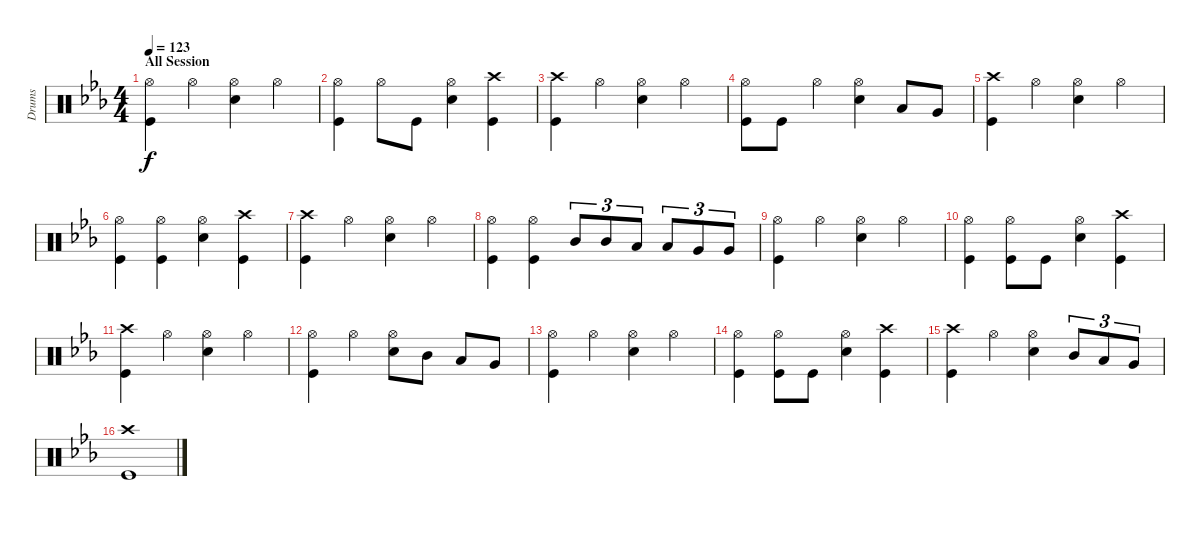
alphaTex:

\track ("Drums" "Drums") {instrument percussion}
\staff {score}
\articulation defaults
\ts (4 4)
\section ("" "All Session")
\tempo 123
\clef neutral
\ks eb
("Hi-Hat (open)" "Kick (hit)").4{dy f} "Hi-Hat (open)".4 ("Hi-Hat (open)" "Electric Snare (hit)").4 "Hi-Hat (open)".4 |
("Hi-Hat (open)" "Kick (hit)").4 "Hi-Hat (open)".8 "Kick (hit)".8 ("Hi-Hat (open)" "Electric Snare (hit)").4 ("Crash high (hit)" "Kick (hit)").4 |
("Crash high (hit)" "Kick (hit)").4 "Hi-Hat (open)".4 ("Hi-Hat (open)" "Electric Snare (hit)").4 "Hi-Hat (open)".4 |
("Hi-Hat (open)" "Kick (hit)").8 "Kick (hit)".8 "Hi-Hat (open)".4 ("Hi-Hat (open)" "Electric Snare (hit)").4 "Low Tom (hit)".8 "Very Low Tom (hit)".8 |
("Crash high (hit)" "Kick (hit)").4 "Hi-Hat (open)".4 ("Hi-Hat (open)" "Electric Snare (hit)").4 "Hi-Hat (open)".4 |
("Hi-Hat (open)" "Kick (hit)").4 ("Hi-Hat (open)" "Kick (hit)").4 ("Hi-Hat (open)" "Electric Snare (hit)").4 ("Crash high (hit)" "Kick (hit)").4 |
("Crash high (hit)" "Kick (hit)").4 "Hi-Hat (open)".4 ("Hi-Hat (open)" "Electric Snare (hit)").4 "Hi-Hat (open)".4 |
("Hi-Hat (open)" "Kick (hit)").4 ("Hi-Hat (open)" "Kick (hit)").4 "Mid Tom (hit)".8{tu (3 2)} "Mid Tom (hit)".8{tu (3 2)} "Low Tom (hit)".8{tu (3 2)} "Low Tom (hit)".8{tu (3 2)} "Very Low Tom (hit)".8{tu (3 2)} "Very Low Tom (hit)".8{tu (3 2)} |
("Hi-Hat (open)" "Kick (hit)").4 "Hi-Hat (open)".4 ("Hi-Hat (open)" "Electric Snare (hit)").4 "Hi-Hat (open)".4 |
("Hi-Hat (open)" "Kick (hit)").4 ("Hi-Hat (open)" "Kick (hit)").8 "Kick (hit)".8 ("Hi-Hat (open)" "Electric Snare (hit)").4 ("Crash high (hit)" "Kick (hit)").4 |
("Crash high (hit)" "Kick (hit)").4 "Hi-Hat (open)".4 ("Hi-Hat (open)" "Electric Snare (hit)").4 "Hi-Hat (open)".4 |
("Hi-Hat (open)" "Kick (hit)").4 "Hi-Hat (open)".4 ("Hi-Hat (open)" "Electric Snare (hit)").8 "Mid Tom (hit)".8 "Low Tom (hit)".8 "Very Low Tom (hit)".8 |
("Hi-Hat (open)" "Kick (hit)").4 "Hi-Hat (open)".4 ("Hi-Hat (open)" "Electric Snare (hit)").4 "Hi-Hat (open)".4 |
("Hi-Hat (open)" "Kick (hit)").4 ("Hi-Hat (open)" "Kick (hit)").8 "Kick (hit)".8 ("Hi-Hat (open)" "Electric Snare (hit)").4 ("Crash high (hit)" "Kick (hit)").4 |
("Crash high (hit)" "Kick (hit)").4 "Hi-Hat (open)".4 ("Hi-Hat (open)" "Electric Snare (hit)").4 "Mid Tom (hit)".8{tu (3 2)} "Low Tom (hit)".8{tu (3 2)} "Very Low Tom (hit)".8{tu (3 2)} |
("Crash high (hit)" "Kick (hit)").1
